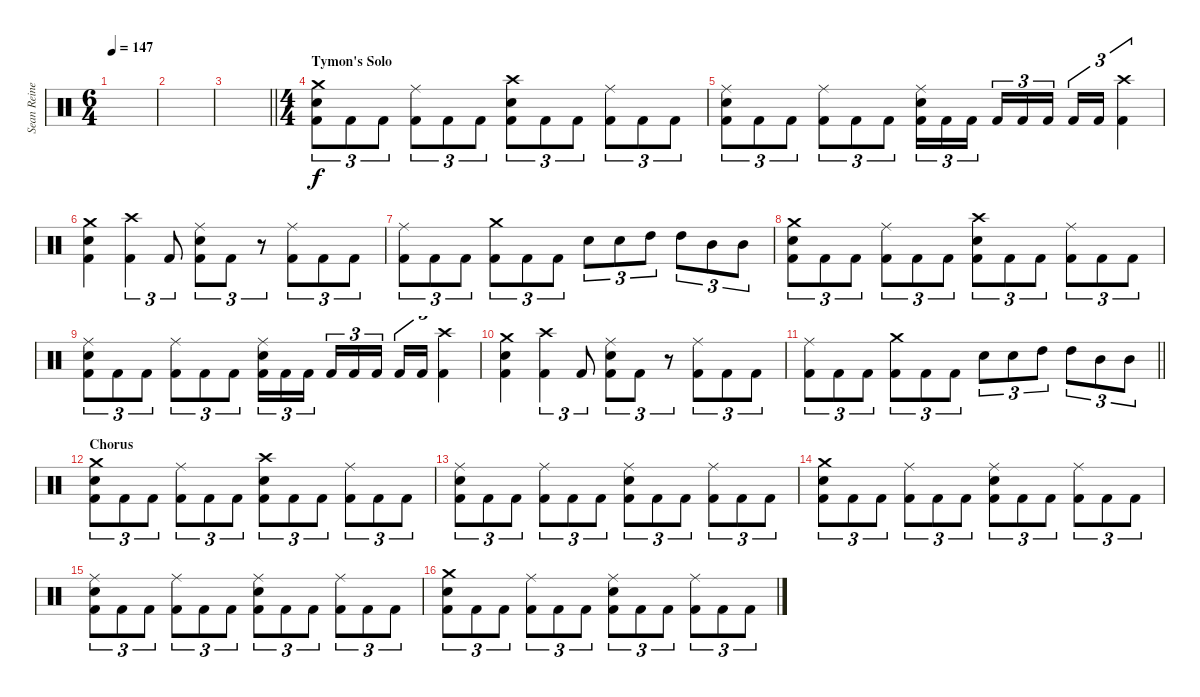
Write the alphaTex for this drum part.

\track ("Sean Reinert" "Sean Reine") {instrument percussion}
\staff {score}
\articulation defaults
\ts (6 4)
\tempo 147
\clef neutral
\ks c
|
|
\barLineRight lightlight
|
\ts (4 4)
\section ("" "Tymon's Solo")
("Crash medium (hit)" "Snare (hit) 2" "Kick (hit) 2").8{tu (3 2)} "Kick (hit) 2".8{tu (3 2)} "Kick (hit) 2".8{tu (3 2)} ("Ride (middle)" "Kick (hit) 2").8{tu (3 2)} "Kick (hit) 2".8{tu (3 2)} "Kick (hit) 2".8{tu (3 2)} ("Crash high (hit)" "Snare (hit) 2" "Kick (hit) 2").8{tu (3 2)} "Kick (hit) 2".8{tu (3 2)} "Kick (hit) 2".8{tu (3 2)} ("Ride (middle)" "Kick (hit) 2").8{tu (3 2)} "Kick (hit) 2".8{tu (3 2)} "Kick (hit) 2".8{tu (3 2)} |
("Ride (middle)" "Snare (hit) 2" "Kick (hit) 2").8{tu (3 2)} "Kick (hit) 2".8{tu (3 2)} "Kick (hit) 2".8{tu (3 2)} ("Ride (middle)" "Kick (hit) 2").8{tu (3 2)} "Kick (hit) 2".8{tu (3 2)} "Kick (hit) 2".8{tu (3 2)} ("Ride (middle)" "Snare (hit) 2" "Kick (hit) 2").16{tu (3 2)} "Kick (hit) 2".16{tu (3 2)} "Kick (hit) 2".16{tu (3 2) beam splitsecondary} "Kick (hit) 2".16{tu (3 2)} "Kick (hit) 2".16{tu (3 2)} "Kick (hit) 2".16{tu (3 2)} "Kick (hit) 2".16{tu (3 2)} "Kick (hit) 2".16{tu (3 2)} ("Crash high (hit)" "Kick (hit) 2").4{tu (3 2)} |
("Crash medium (hit)" "Snare (hit) 2" "Kick (hit) 2").4 ("Crash high (hit)" "Kick (hit) 2").4{tu (3 2)} "Kick (hit) 2".8{tu (3 2)} ("Ride (middle)" "Snare (hit) 2" "Kick (hit) 2").8{tu (3 2)} "Kick (hit) 2".8{tu (3 2)} r.8{tu (3 2)} ("Ride (middle)" "Kick (hit) 2").8{tu (3 2)} "Kick (hit) 2".8{tu (3 2)} "Kick (hit) 2".8{tu (3 2)} |
("Ride (middle)" "Kick (hit) 2").8{tu (3 2)} "Kick (hit) 2".8{tu (3 2)} "Kick (hit) 2".8{tu (3 2)} ("Crash medium (hit)" "Kick (hit) 2").8{tu (3 2)} "Kick (hit) 2".8{tu (3 2)} "Kick (hit) 2".8{tu (3 2)} "Snare (hit) 2".8{tu (3 2)} "Snare (hit) 2".8{tu (3 2)} "High Tom (hit)".8{tu (3 2)} "High Tom (hit)".8{tu (3 2)} "Mid Tom (hit)".8{tu (3 2)} "Mid Tom (hit)".8{tu (3 2)} |
("Crash medium (hit)" "Snare (hit) 2" "Kick (hit) 2").8{tu (3 2)} "Kick (hit) 2".8{tu (3 2)} "Kick (hit) 2".8{tu (3 2)} ("Ride (middle)" "Kick (hit) 2").8{tu (3 2)} "Kick (hit) 2".8{tu (3 2)} "Kick (hit) 2".8{tu (3 2)} ("Crash high (hit)" "Snare (hit) 2" "Kick (hit) 2").8{tu (3 2)} "Kick (hit) 2".8{tu (3 2)} "Kick (hit) 2".8{tu (3 2)} ("Ride (middle)" "Kick (hit) 2").8{tu (3 2)} "Kick (hit) 2".8{tu (3 2)} "Kick (hit) 2".8{tu (3 2)} |
("Ride (middle)" "Snare (hit) 2" "Kick (hit) 2").8{tu (3 2)} "Kick (hit) 2".8{tu (3 2)} "Kick (hit) 2".8{tu (3 2)} ("Ride (middle)" "Kick (hit) 2").8{tu (3 2)} "Kick (hit) 2".8{tu (3 2)} "Kick (hit) 2".8{tu (3 2)} ("Ride (middle)" "Snare (hit) 2" "Kick (hit) 2").16{tu (3 2)} "Kick (hit) 2".16{tu (3 2)} "Kick (hit) 2".16{tu (3 2) beam splitsecondary} "Kick (hit) 2".16{tu (3 2)} "Kick (hit) 2".16{tu (3 2)} "Kick (hit) 2".16{tu (3 2)} "Kick (hit) 2".16{tu (3 2)} "Kick (hit) 2".16{tu (3 2)} ("Crash high (hit)" "Kick (hit) 2").4{tu (3 2)} |
("Crash medium (hit)" "Snare (hit) 2" "Kick (hit) 2").4 ("Crash high (hit)" "Kick (hit) 2").4{tu (3 2)} "Kick (hit) 2".8{tu (3 2)} ("Ride (middle)" "Snare (hit) 2" "Kick (hit) 2").8{tu (3 2)} "Kick (hit) 2".8{tu (3 2)} r.8{tu (3 2)} ("Ride (middle)" "Kick (hit) 2").8{tu (3 2)} "Kick (hit) 2".8{tu (3 2)} "Kick (hit) 2".8{tu (3 2)} |
\barLineRight lightlight
("Ride (middle)" "Kick (hit) 2").8{tu (3 2)} "Kick (hit) 2".8{tu (3 2)} "Kick (hit) 2".8{tu (3 2)} ("Crash medium (hit)" "Kick (hit) 2").8{tu (3 2)} "Kick (hit) 2".8{tu (3 2)} "Kick (hit) 2".8{tu (3 2)} "Snare (hit) 2".8{tu (3 2)} "Snare (hit) 2".8{tu (3 2)} "High Tom (hit)".8{tu (3 2)} "High Tom (hit)".8{tu (3 2)} "Mid Tom (hit)".8{tu (3 2)} "Mid Tom (hit)".8{tu (3 2)} |
\section ("" "Chorus")
("Crash medium (hit)" "Snare (hit) 2" "Kick (hit) 2").8{tu (3 2)} "Kick (hit) 2".8{tu (3 2)} "Kick (hit) 2".8{tu (3 2)} ("Ride (middle)" "Kick (hit) 2").8{tu (3 2)} "Kick (hit) 2".8{tu (3 2)} "Kick (hit) 2".8{tu (3 2)} ("Crash high (hit)" "Snare (hit) 2" "Kick (hit) 2").8{tu (3 2)} "Kick (hit) 2".8{tu (3 2)} "Kick (hit) 2".8{tu (3 2)} ("Ride (middle)" "Kick (hit) 2").8{tu (3 2)} "Kick (hit) 2".8{tu (3 2)} "Kick (hit) 2".8{tu (3 2)} |
("Ride (middle)" "Snare (hit) 2" "Kick (hit) 2").8{tu (3 2)} "Kick (hit) 2".8{tu (3 2)} "Kick (hit) 2".8{tu (3 2)} ("Ride (middle)" "Kick (hit) 2").8{tu (3 2)} "Kick (hit) 2".8{tu (3 2)} "Kick (hit) 2".8{tu (3 2)} ("Ride (middle)" "Snare (hit) 2" "Kick (hit) 2").8{tu (3 2)} "Kick (hit) 2".8{tu (3 2)} "Kick (hit) 2".8{tu (3 2)} ("Ride (middle)" "Kick (hit) 2").8{tu (3 2)} "Kick (hit) 2".8{tu (3 2)} "Kick (hit) 2".8{tu (3 2)} |
("Crash medium (hit)" "Snare (hit) 2" "Kick (hit) 2").8{tu (3 2)} "Kick (hit) 2".8{tu (3 2)} "Kick (hit) 2".8{tu (3 2)} ("Ride (middle)" "Kick (hit) 2").8{tu (3 2)} "Kick (hit) 2".8{tu (3 2)} "Kick (hit) 2".8{tu (3 2)} ("Ride (middle)" "Snare (hit) 2" "Kick (hit) 2").8{tu (3 2)} "Kick (hit) 2".8{tu (3 2)} "Kick (hit) 2".8{tu (3 2)} ("Ride (middle)" "Kick (hit) 2").8{tu (3 2)} "Kick (hit) 2".8{tu (3 2)} "Kick (hit) 2".8{tu (3 2)} |
("Ride (middle)" "Snare (hit) 2" "Kick (hit) 2").8{tu (3 2)} "Kick (hit) 2".8{tu (3 2)} "Kick (hit) 2".8{tu (3 2)} ("Ride (middle)" "Kick (hit) 2").8{tu (3 2)} "Kick (hit) 2".8{tu (3 2)} "Kick (hit) 2".8{tu (3 2)} ("Ride (middle)" "Snare (hit) 2" "Kick (hit) 2").8{tu (3 2)} "Kick (hit) 2".8{tu (3 2)} "Kick (hit) 2".8{tu (3 2)} ("Ride (middle)" "Kick (hit) 2").8{tu (3 2)} "Kick (hit) 2".8{tu (3 2)} "Kick (hit) 2".8{tu (3 2)} |
("Crash medium (hit)" "Snare (hit) 2" "Kick (hit) 2").8{tu (3 2)} "Kick (hit) 2".8{tu (3 2)} "Kick (hit) 2".8{tu (3 2)} ("Ride (middle)" "Kick (hit) 2").8{tu (3 2)} "Kick (hit) 2".8{tu (3 2)} "Kick (hit) 2".8{tu (3 2)} ("Ride (middle)" "Snare (hit) 2" "Kick (hit) 2").8{tu (3 2)} "Kick (hit) 2".8{tu (3 2)} "Kick (hit) 2".8{tu (3 2)} ("Ride (middle)" "Kick (hit) 2").8{tu (3 2)} "Kick (hit) 2".8{tu (3 2)} "Kick (hit) 2".8{tu (3 2)}
